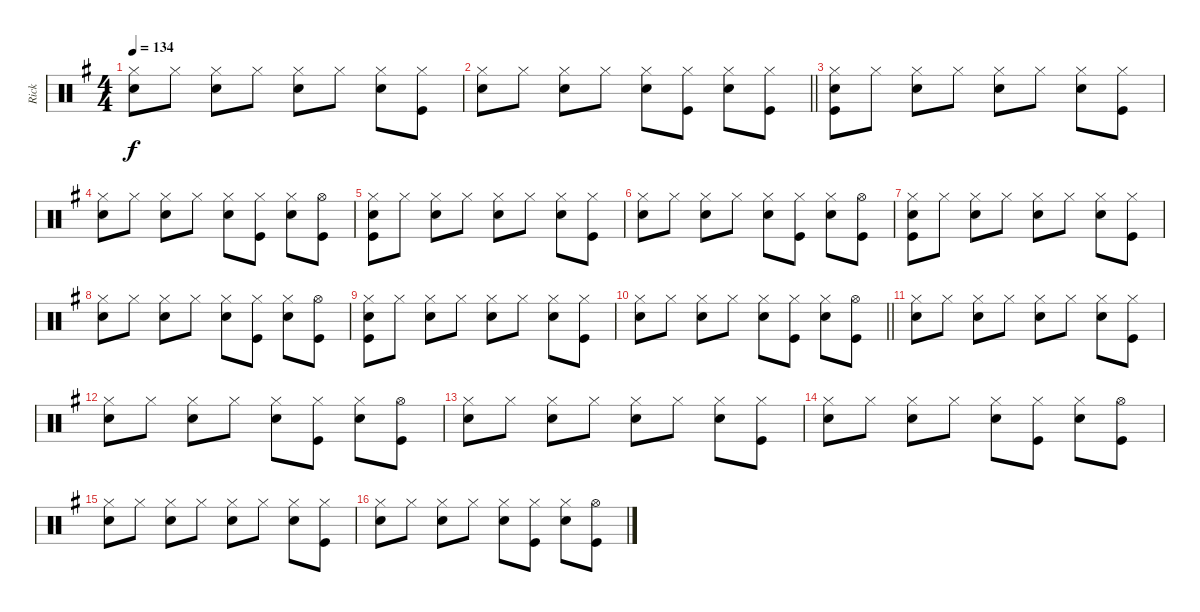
\track ("Rick" "Rick") {instrument percussion}
\staff {score}
\articulation defaults
\ts (4 4)
\tempo 134
\clef neutral
\ks g
("Hi-Hat (closed)" "Snare (hit) 2").8{dy f} "Hi-Hat (closed)".8 ("Hi-Hat (closed)" "Snare (hit) 2").8 "Hi-Hat (closed)".8 ("Hi-Hat (closed)" "Snare (hit) 2").8 "Hi-Hat (closed)".8 ("Hi-Hat (closed)" "Snare (hit) 2").8 ("Hi-Hat (closed)" "Kick (hit)").8 |
\barLineRight lightlight
("Hi-Hat (closed)" "Snare (hit) 2").8 "Hi-Hat (closed)".8 ("Hi-Hat (closed)" "Snare (hit) 2").8 "Hi-Hat (closed)".8 ("Hi-Hat (closed)" "Snare (hit) 2").8 ("Hi-Hat (closed)" "Kick (hit)").8 ("Hi-Hat (closed)" "Snare (hit) 2").8 ("Hi-Hat (closed)" "Kick (hit)").8 |
("Hi-Hat (closed)" "Snare (hit) 2" "Kick (hit)").8 "Hi-Hat (closed)".8 ("Hi-Hat (closed)" "Snare (hit) 2").8 "Hi-Hat (closed)".8 ("Hi-Hat (closed)" "Snare (hit) 2").8 "Hi-Hat (closed)".8 ("Hi-Hat (closed)" "Snare (hit) 2").8 ("Hi-Hat (closed)" "Kick (hit)").8 |
("Hi-Hat (closed)" "Snare (hit) 2").8 "Hi-Hat (closed)".8 ("Hi-Hat (closed)" "Snare (hit) 2").8 "Hi-Hat (closed)".8 ("Hi-Hat (closed)" "Snare (hit) 2").8 ("Hi-Hat (closed)" "Kick (hit)").8 ("Hi-Hat (closed)" "Snare (hit) 2").8 ("Hi-Hat (open)" "Kick (hit)").8 |
("Hi-Hat (closed)" "Snare (hit) 2" "Kick (hit)").8 "Hi-Hat (closed)".8 ("Hi-Hat (closed)" "Snare (hit) 2").8 "Hi-Hat (closed)".8 ("Hi-Hat (closed)" "Snare (hit) 2").8 "Hi-Hat (closed)".8 ("Hi-Hat (closed)" "Snare (hit) 2").8 ("Hi-Hat (closed)" "Kick (hit)").8 |
("Hi-Hat (closed)" "Snare (hit) 2").8 "Hi-Hat (closed)".8 ("Hi-Hat (closed)" "Snare (hit) 2").8 "Hi-Hat (closed)".8 ("Hi-Hat (closed)" "Snare (hit) 2").8 ("Hi-Hat (closed)" "Kick (hit)").8 ("Hi-Hat (closed)" "Snare (hit) 2").8 ("Hi-Hat (open)" "Kick (hit)").8 |
("Hi-Hat (closed)" "Snare (hit) 2" "Kick (hit)").8 "Hi-Hat (closed)".8 ("Hi-Hat (closed)" "Snare (hit) 2").8 "Hi-Hat (closed)".8 ("Hi-Hat (closed)" "Snare (hit) 2").8 "Hi-Hat (closed)".8 ("Hi-Hat (closed)" "Snare (hit) 2").8 ("Hi-Hat (closed)" "Kick (hit)").8 |
("Hi-Hat (closed)" "Snare (hit) 2").8 "Hi-Hat (closed)".8 ("Hi-Hat (closed)" "Snare (hit) 2").8 "Hi-Hat (closed)".8 ("Hi-Hat (closed)" "Snare (hit) 2").8 ("Hi-Hat (closed)" "Kick (hit)").8 ("Hi-Hat (closed)" "Snare (hit) 2").8 ("Hi-Hat (open)" "Kick (hit)").8 |
("Hi-Hat (closed)" "Snare (hit) 2" "Kick (hit)").8 "Hi-Hat (closed)".8 ("Hi-Hat (closed)" "Snare (hit) 2").8 "Hi-Hat (closed)".8 ("Hi-Hat (closed)" "Snare (hit) 2").8 "Hi-Hat (closed)".8 ("Hi-Hat (closed)" "Snare (hit) 2").8 ("Hi-Hat (closed)" "Kick (hit)").8 |
\barLineRight lightlight
("Hi-Hat (closed)" "Snare (hit) 2").8 "Hi-Hat (closed)".8 ("Hi-Hat (closed)" "Snare (hit) 2").8 "Hi-Hat (closed)".8 ("Hi-Hat (closed)" "Snare (hit) 2").8 ("Hi-Hat (closed)" "Kick (hit)").8 ("Hi-Hat (closed)" "Snare (hit) 2").8 ("Hi-Hat (open)" "Kick (hit)").8 |
("Hi-Hat (closed)" "Snare (hit) 2").8 "Hi-Hat (closed)".8 ("Hi-Hat (closed)" "Snare (hit) 2").8 "Hi-Hat (closed)".8 ("Hi-Hat (closed)" "Snare (hit) 2").8 "Hi-Hat (closed)".8 ("Hi-Hat (closed)" "Snare (hit) 2").8 ("Hi-Hat (closed)" "Kick (hit)").8 |
("Hi-Hat (closed)" "Snare (hit) 2").8 "Hi-Hat (closed)".8 ("Hi-Hat (closed)" "Snare (hit) 2").8 "Hi-Hat (closed)".8 ("Hi-Hat (closed)" "Snare (hit) 2").8 ("Hi-Hat (closed)" "Kick (hit)").8 ("Hi-Hat (closed)" "Snare (hit) 2").8 ("Hi-Hat (open)" "Kick (hit)").8 |
("Hi-Hat (closed)" "Snare (hit) 2").8 "Hi-Hat (closed)".8 ("Hi-Hat (closed)" "Snare (hit) 2").8 "Hi-Hat (closed)".8 ("Hi-Hat (closed)" "Snare (hit) 2").8 "Hi-Hat (closed)".8 ("Hi-Hat (closed)" "Snare (hit) 2").8 ("Hi-Hat (closed)" "Kick (hit)").8 |
("Hi-Hat (closed)" "Snare (hit) 2").8 "Hi-Hat (closed)".8 ("Hi-Hat (closed)" "Snare (hit) 2").8 "Hi-Hat (closed)".8 ("Hi-Hat (closed)" "Snare (hit) 2").8 ("Hi-Hat (closed)" "Kick (hit)").8 ("Hi-Hat (closed)" "Snare (hit) 2").8 ("Hi-Hat (open)" "Kick (hit)").8 |
("Hi-Hat (closed)" "Snare (hit) 2").8 "Hi-Hat (closed)".8 ("Hi-Hat (closed)" "Snare (hit) 2").8 "Hi-Hat (closed)".8 ("Hi-Hat (closed)" "Snare (hit) 2").8 "Hi-Hat (closed)".8 ("Hi-Hat (closed)" "Snare (hit) 2").8 ("Hi-Hat (closed)" "Kick (hit)").8 |
("Hi-Hat (closed)" "Snare (hit) 2").8 "Hi-Hat (closed)".8 ("Hi-Hat (closed)" "Snare (hit) 2").8 "Hi-Hat (closed)".8 ("Hi-Hat (closed)" "Snare (hit) 2").8 ("Hi-Hat (closed)" "Kick (hit)").8 ("Hi-Hat (closed)" "Snare (hit) 2").8 ("Hi-Hat (open)" "Kick (hit)").8
